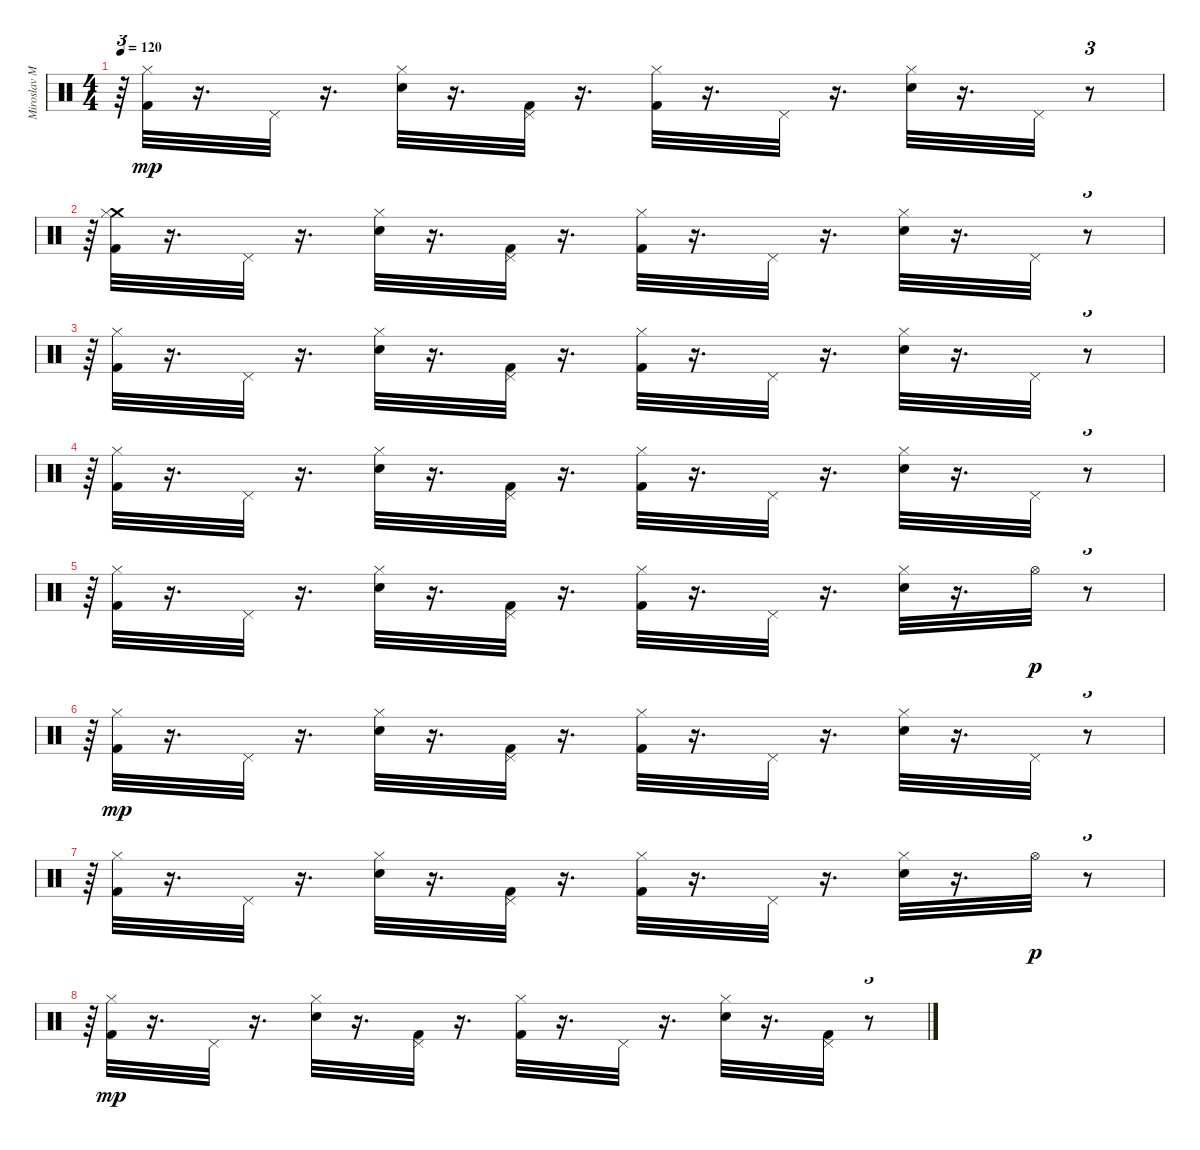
\track ("Miroslav Milatovic-Vicko-bubnjevi" "Miroslav M") {instrument percussion}
\staff {score}
\articulation defaults
\ts (4 4)
\tempo 120
\clef neutral
\ks c
r.64{tu (3 2) dy mp} ("Kick (hit) 2" "Hi-Hat (closed)").32 r.16{d} "Pedal Hi-Hat (hit)".32 r.16{d} ("Electric Snare (hit)" "Hi-Hat (closed)").32 r.16{d} ("Kick (hit) 2" "Pedal Hi-Hat (hit)").32 r.16{d} ("Kick (hit) 2" "Hi-Hat (closed)").32 r.16{d} "Pedal Hi-Hat (hit)".32 r.16{d} ("Electric Snare (hit)" "Hi-Hat (closed)").32 r.16{d} "Pedal Hi-Hat (hit)".32 r.8{tu (3 2)} |
r.64{tu (3 2)} ("Crash medium (hit)" "Kick (hit) 2" "Hi-Hat (closed)").32 r.16{d} "Pedal Hi-Hat (hit)".32 r.16{d} ("Electric Snare (hit)" "Hi-Hat (closed)").32 r.16{d} ("Kick (hit) 2" "Pedal Hi-Hat (hit)").32 r.16{d} ("Kick (hit) 2" "Hi-Hat (closed)").32 r.16{d} "Pedal Hi-Hat (hit)".32 r.16{d} ("Electric Snare (hit)" "Hi-Hat (closed)").32 r.16{d} "Pedal Hi-Hat (hit)".32 r.8{tu (3 2)} |
r.64{tu (3 2)} ("Hi-Hat (closed)" "Kick (hit) 2").32 r.16{d} "Pedal Hi-Hat (hit)".32 r.16{d} ("Hi-Hat (closed)" "Electric Snare (hit)").32 r.16{d} ("Pedal Hi-Hat (hit)" "Kick (hit) 2").32 r.16{d} ("Hi-Hat (closed)" "Kick (hit) 2").32 r.16{d} "Pedal Hi-Hat (hit)".32 r.16{d} ("Hi-Hat (closed)" "Electric Snare (hit)").32 r.16{d} "Pedal Hi-Hat (hit)".32 r.8{tu (3 2)} |
r.64{tu (3 2)} ("Hi-Hat (closed)" "Kick (hit) 2").32 r.16{d} "Pedal Hi-Hat (hit)".32 r.16{d} ("Hi-Hat (closed)" "Electric Snare (hit)").32 r.16{d} ("Pedal Hi-Hat (hit)" "Kick (hit) 2").32 r.16{d} ("Hi-Hat (closed)" "Kick (hit) 2").32 r.16{d} "Pedal Hi-Hat (hit)".32 r.16{d} ("Hi-Hat (closed)" "Electric Snare (hit)").32 r.16{d} "Pedal Hi-Hat (hit)".32 r.8{tu (3 2)} |
r.64{tu (3 2)} ("Kick (hit) 2" "Hi-Hat (closed)").32 r.16{d} "Pedal Hi-Hat (hit)".32 r.16{d} ("Electric Snare (hit)" "Hi-Hat (closed)").32 r.16{d} ("Kick (hit) 2" "Pedal Hi-Hat (hit)").32 r.16{d} ("Kick (hit) 2" "Hi-Hat (closed)").32 r.16{d} "Pedal Hi-Hat (hit)".32 r.16{d} ("Electric Snare (hit)" "Hi-Hat (closed)").32 r.16{d} "Hi-Hat (open)".32{dy p} r.8{tu (3 2)} |
r.64{tu (3 2)} ("Hi-Hat (closed)" "Kick (hit) 2").32{dy mp} r.16{d} "Pedal Hi-Hat (hit)".32 r.16{d} ("Hi-Hat (closed)" "Electric Snare (hit)").32 r.16{d} ("Pedal Hi-Hat (hit)" "Kick (hit) 2").32 r.16{d} ("Hi-Hat (closed)" "Kick (hit) 2").32 r.16{d} "Pedal Hi-Hat (hit)".32 r.16{d} ("Hi-Hat (closed)" "Electric Snare (hit)").32 r.16{d} "Pedal Hi-Hat (hit)".32 r.8{tu (3 2)} |
r.64{tu (3 2)} ("Kick (hit) 2" "Hi-Hat (closed)").32 r.16{d} "Pedal Hi-Hat (hit)".32 r.16{d} ("Electric Snare (hit)" "Hi-Hat (closed)").32 r.16{d} ("Kick (hit) 2" "Pedal Hi-Hat (hit)").32 r.16{d} ("Kick (hit) 2" "Hi-Hat (closed)").32 r.16{d} "Pedal Hi-Hat (hit)".32 r.16{d} ("Electric Snare (hit)" "Hi-Hat (closed)").32 r.16{d} "Hi-Hat (open)".32{dy p} r.8{tu (3 2)} |
r.64{tu (3 2)} ("Kick (hit) 2" "Hi-Hat (closed)").32{dy mp} r.16{d} "Pedal Hi-Hat (hit)".32 r.16{d} ("Electric Snare (hit)" "Hi-Hat (closed)").32 r.16{d} ("Kick (hit) 2" "Pedal Hi-Hat (hit)").32 r.16{d} ("Kick (hit) 2" "Hi-Hat (closed)").32 r.16{d} "Pedal Hi-Hat (hit)".32 r.16{d} ("Electric Snare (hit)" "Hi-Hat (closed)").32 r.16{d} ("Kick (hit) 2" "Pedal Hi-Hat (hit)").32 r.8{tu (3 2)}
